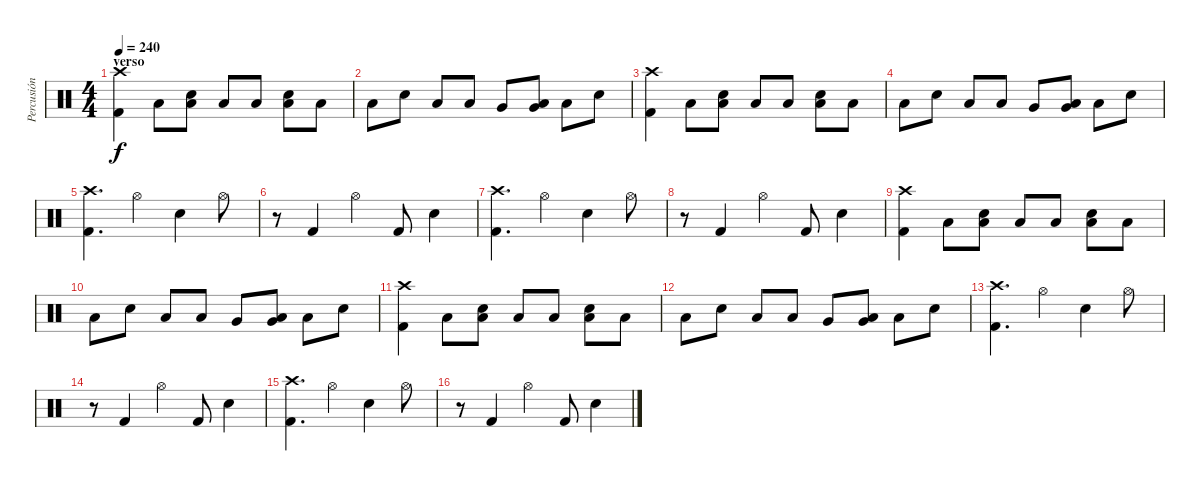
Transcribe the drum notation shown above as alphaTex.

\track ("Percusión" "Percusión") {instrument percussion}
\staff {score}
\articulation defaults
\ts (4 4)
\section ("" "verso")
\tempo 240
\clef neutral
\ks c
("Crash high (hit)" "Kick (hit) 2").4{dy f} "Low Floor Tom (hit)".8 ("Electric Snare (hit)" "Low Floor Tom (hit)").8 "Low Floor Tom (hit)".8 "Low Floor Tom (hit)".8 ("Electric Snare (hit)" "Low Floor Tom (hit)").8 "Low Floor Tom (hit)".8 |
"Low Floor Tom (hit)".8 "Electric Snare (hit)".8 "Low Tom (hit)".8 "Low Tom (hit)".8 "Very Low Tom (hit)".8 ("Very Low Tom (hit)" "Low Floor Tom (hit)").8 "Low Floor Tom (hit)".8 "Electric Snare (hit)".8 |
("Crash high (hit)" "Kick (hit) 2").4 "Low Floor Tom (hit)".8 ("Electric Snare (hit)" "Low Floor Tom (hit)").8 "Low Floor Tom (hit)".8 "Low Floor Tom (hit)".8 ("Electric Snare (hit)" "Low Floor Tom (hit)").8 "Low Floor Tom (hit)".8 |
"Low Floor Tom (hit)".8 "Electric Snare (hit)".8 "Low Tom (hit)".8 "Low Tom (hit)".8 "Very Low Tom (hit)".8 ("Very Low Tom (hit)" "Low Floor Tom (hit)").8 "Low Floor Tom (hit)".8 "Electric Snare (hit)".8 |
("Crash high (hit)" "Kick (hit) 2").4{d} "Hi-Hat (open)".4 "Electric Snare (hit)".4 "Hi-Hat (open)".8 |
r.8 "Kick (hit) 2".4 "Hi-Hat (open)".4 "Kick (hit) 2".8 "Electric Snare (hit)".4 |
("Crash high (hit)" "Kick (hit) 2").4{d} "Hi-Hat (open)".4 "Electric Snare (hit)".4 "Hi-Hat (open)".8 |
r.8 "Kick (hit) 2".4 "Hi-Hat (open)".4 "Kick (hit) 2".8 "Electric Snare (hit)".4 |
("Crash high (hit)" "Kick (hit) 2").4 "Low Floor Tom (hit)".8 ("Electric Snare (hit)" "Low Floor Tom (hit)").8 "Low Floor Tom (hit)".8 "Low Floor Tom (hit)".8 ("Electric Snare (hit)" "Low Floor Tom (hit)").8 "Low Floor Tom (hit)".8 |
"Low Floor Tom (hit)".8 "Electric Snare (hit)".8 "Low Tom (hit)".8 "Low Tom (hit)".8 "Very Low Tom (hit)".8 ("Very Low Tom (hit)" "Low Floor Tom (hit)").8 "Low Floor Tom (hit)".8 "Electric Snare (hit)".8 |
("Crash high (hit)" "Kick (hit) 2").4 "Low Floor Tom (hit)".8 ("Electric Snare (hit)" "Low Floor Tom (hit)").8 "Low Floor Tom (hit)".8 "Low Floor Tom (hit)".8 ("Electric Snare (hit)" "Low Floor Tom (hit)").8 "Low Floor Tom (hit)".8 |
"Low Floor Tom (hit)".8 "Electric Snare (hit)".8 "Low Tom (hit)".8 "Low Tom (hit)".8 "Very Low Tom (hit)".8 ("Very Low Tom (hit)" "Low Floor Tom (hit)").8 "Low Floor Tom (hit)".8 "Electric Snare (hit)".8 |
("Crash high (hit)" "Kick (hit) 2").4{d} "Hi-Hat (open)".4 "Electric Snare (hit)".4 "Hi-Hat (open)".8 |
r.8 "Kick (hit) 2".4 "Hi-Hat (open)".4 "Kick (hit) 2".8 "Electric Snare (hit)".4 |
("Crash high (hit)" "Kick (hit) 2").4{d} "Hi-Hat (open)".4 "Electric Snare (hit)".4 "Hi-Hat (open)".8 |
r.8 "Kick (hit) 2".4 "Hi-Hat (open)".4 "Kick (hit) 2".8 "Electric Snare (hit)".4
